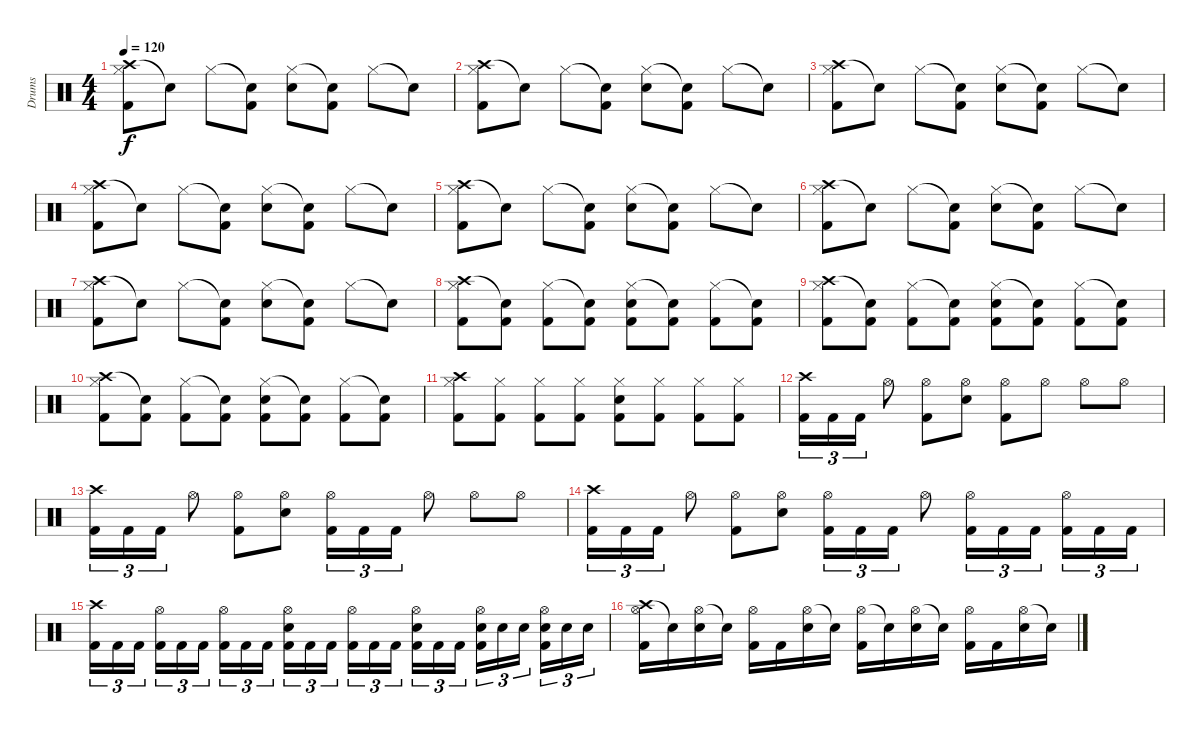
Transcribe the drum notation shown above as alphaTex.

\track ("Drums" "Drums") {instrument percussion}
\staff {score}
\articulation defaults
\ts (4 4)
\tempo 120
\clef neutral
\ks c
("Crash high (hit)" "Hi-Hat (closed)" "Kick (hit) 2").8{dy f} "Snare (hit)"{t}.8 "Hi-Hat (closed)".8 ("Snare (hit)"{t} "Kick (hit) 2").8 ("Hi-Hat (closed)" "Electric Snare (hit)").8 ("Snare (hit)"{t} "Kick (hit) 2").8 "Hi-Hat (closed)".8 "Snare (hit)"{t}.8 |
("Crash high (hit)" "Hi-Hat (closed)" "Kick (hit) 2").8 "Snare (hit)"{t}.8 "Hi-Hat (closed)".8 ("Snare (hit)"{t} "Kick (hit) 2").8 ("Hi-Hat (closed)" "Electric Snare (hit)").8 ("Snare (hit)"{t} "Kick (hit) 2").8 "Hi-Hat (closed)".8 "Snare (hit)"{t}.8 |
("Crash high (hit)" "Hi-Hat (closed)" "Kick (hit) 2").8 "Snare (hit)"{t}.8 "Hi-Hat (closed)".8 ("Snare (hit)"{t} "Kick (hit) 2").8 ("Hi-Hat (closed)" "Electric Snare (hit)").8 ("Snare (hit)"{t} "Kick (hit) 2").8 "Hi-Hat (closed)".8 "Snare (hit)"{t}.8 |
("Crash high (hit)" "Hi-Hat (closed)" "Kick (hit) 2").8 "Snare (hit)"{t}.8 "Hi-Hat (closed)".8 ("Snare (hit)"{t} "Kick (hit) 2").8 ("Hi-Hat (closed)" "Electric Snare (hit)").8 ("Snare (hit)"{t} "Kick (hit) 2").8 "Hi-Hat (closed)".8 "Snare (hit)"{t}.8 |
("Crash high (hit)" "Hi-Hat (closed)" "Kick (hit) 2").8 "Snare (hit)"{t}.8 "Hi-Hat (closed)".8 ("Snare (hit)"{t} "Kick (hit) 2").8 ("Hi-Hat (closed)" "Electric Snare (hit)").8 ("Snare (hit)"{t} "Kick (hit) 2").8 "Hi-Hat (closed)".8 "Snare (hit)"{t}.8 |
("Crash high (hit)" "Hi-Hat (closed)" "Kick (hit) 2").8 "Snare (hit)"{t}.8 "Hi-Hat (closed)".8 ("Snare (hit)"{t} "Kick (hit) 2").8 ("Hi-Hat (closed)" "Electric Snare (hit)").8 ("Snare (hit)"{t} "Kick (hit) 2").8 "Hi-Hat (closed)".8 "Snare (hit)"{t}.8 |
("Crash high (hit)" "Hi-Hat (closed)" "Kick (hit) 2").8 "Snare (hit)"{t}.8 "Hi-Hat (closed)".8 ("Snare (hit)"{t} "Kick (hit) 2").8 ("Hi-Hat (closed)" "Electric Snare (hit)").8 ("Snare (hit)"{t} "Kick (hit) 2").8 "Hi-Hat (closed)".8 "Snare (hit)"{t}.8 |
("Crash high (hit)" "Hi-Hat (closed)" "Kick (hit) 2").8 ("Snare (hit)"{t} "Kick (hit) 2").8 ("Hi-Hat (closed)" "Kick (hit) 2").8 ("Snare (hit)"{t} "Kick (hit) 2").8 ("Hi-Hat (closed)" "Electric Snare (hit)" "Kick (hit) 2").8 ("Snare (hit)"{t} "Kick (hit) 2").8 ("Hi-Hat (closed)" "Kick (hit) 2").8 ("Snare (hit)"{t} "Kick (hit) 2").8 |
("Crash high (hit)" "Hi-Hat (closed)" "Kick (hit) 2").8 ("Snare (hit)"{t} "Kick (hit) 2").8 ("Hi-Hat (closed)" "Kick (hit) 2").8 ("Snare (hit)"{t} "Kick (hit) 2").8 ("Hi-Hat (closed)" "Electric Snare (hit)" "Kick (hit) 2").8 ("Snare (hit)"{t} "Kick (hit) 2").8 ("Hi-Hat (closed)" "Kick (hit) 2").8 ("Snare (hit)"{t} "Kick (hit) 2").8 |
("Crash high (hit)" "Hi-Hat (closed)" "Kick (hit) 2").8 ("Snare (hit)"{t} "Kick (hit) 2").8 ("Hi-Hat (closed)" "Kick (hit) 2").8 ("Snare (hit)"{t} "Kick (hit) 2").8 ("Hi-Hat (closed)" "Electric Snare (hit)" "Kick (hit) 2").8 ("Snare (hit)"{t} "Kick (hit) 2").8 ("Hi-Hat (closed)" "Kick (hit) 2").8 ("Snare (hit)"{t} "Kick (hit) 2").8 |
("Crash high (hit)" "Hi-Hat (closed)" "Kick (hit) 2").8 ("Hi-Hat (closed)" "Kick (hit) 2").8 ("Hi-Hat (closed)" "Kick (hit) 2").8 ("Hi-Hat (closed)" "Kick (hit) 2").8 ("Hi-Hat (closed)" "Electric Snare (hit)" "Kick (hit) 2").8 ("Hi-Hat (closed)" "Kick (hit) 2").8 ("Hi-Hat (closed)" "Kick (hit) 2").8 ("Hi-Hat (closed)" "Kick (hit) 2").8 |
("Crash high (hit)" "Kick (hit) 2").16{tu (3 2)} "Kick (hit) 2".16{tu (3 2)} "Kick (hit) 2".16{tu (3 2)} "Hi-Hat (open)".8 ("Hi-Hat (open)" "Kick (hit) 2").8 ("Hi-Hat (open)" "Electric Snare (hit)").8 ("Hi-Hat (open)" "Kick (hit) 2").8 "Hi-Hat (open)".8 "Hi-Hat (open)".8 "Hi-Hat (open)".8 |
("Crash high (hit)" "Kick (hit) 2").16{tu (3 2)} "Kick (hit) 2".16{tu (3 2)} "Kick (hit) 2".16{tu (3 2)} "Hi-Hat (open)".8 ("Hi-Hat (open)" "Kick (hit) 2").8 ("Hi-Hat (open)" "Electric Snare (hit)").8 ("Hi-Hat (open)" "Kick (hit) 2").16{tu (3 2)} "Kick (hit) 2".16{tu (3 2)} "Kick (hit) 2".16{tu (3 2)} "Hi-Hat (open)".8 "Hi-Hat (open)".8 "Hi-Hat (open)".8 |
("Crash high (hit)" "Kick (hit) 2").16{tu (3 2)} "Kick (hit) 2".16{tu (3 2)} "Kick (hit) 2".16{tu (3 2)} "Hi-Hat (open)".8 ("Hi-Hat (open)" "Kick (hit) 2").8 ("Hi-Hat (open)" "Electric Snare (hit)").8 ("Hi-Hat (open)" "Kick (hit) 2").16{tu (3 2)} "Kick (hit) 2".16{tu (3 2)} "Kick (hit) 2".16{tu (3 2)} "Hi-Hat (open)".8 ("Hi-Hat (open)" "Kick (hit) 2").16{tu (3 2)} "Kick (hit) 2".16{tu (3 2)} "Kick (hit) 2".16{tu (3 2)} ("Hi-Hat (open)" "Kick (hit) 2").16{tu (3 2)} "Kick (hit) 2".16{tu (3 2)} "Kick (hit) 2".16{tu (3 2)} |
("Crash high (hit)" "Kick (hit) 2").16{tu (3 2)} "Kick (hit) 2".16{tu (3 2)} "Kick (hit) 2".16{tu (3 2)} ("Hi-Hat (open)" "Kick (hit) 2").16{tu (3 2)} "Kick (hit) 2".16{tu (3 2)} "Kick (hit) 2".16{tu (3 2)} ("Hi-Hat (open)" "Kick (hit) 2").16{tu (3 2)} "Kick (hit) 2".16{tu (3 2)} "Kick (hit) 2".16{tu (3 2)} ("Hi-Hat (open)" "Electric Snare (hit)" "Kick (hit) 2").16{tu (3 2)} "Kick (hit) 2".16{tu (3 2)} "Kick (hit) 2".16{tu (3 2)} ("Hi-Hat (open)" "Kick (hit) 2").16{tu (3 2)} "Kick (hit) 2".16{tu (3 2)} "Kick (hit) 2".16{tu (3 2)} ("Hi-Hat (open)" "Electric Snare (hit)" "Kick (hit) 2").16{tu (3 2)} "Kick (hit) 2".16{tu (3 2)} "Kick (hit) 2".16{tu (3 2)} ("Hi-Hat (open)" "Electric Snare (hit)" "Kick (hit) 2").16{tu (3 2)} "Electric Snare (hit)".16{tu (3 2)} "Electric Snare (hit)".16{tu (3 2)} ("Hi-Hat (open)" "Electric Snare (hit)" "Kick (hit) 2").16{tu (3 2)} "Electric Snare (hit)".16{tu (3 2)} "Electric Snare (hit)".16{tu (3 2)} |
("Crash high (hit)" "Hi-Hat (open)" "Kick (hit) 2").16 "Snare (hit)"{t}.16 ("Hi-Hat (open)" "Electric Snare (hit)").16 "Snare (hit)"{t}.16 ("Hi-Hat (open)" "Kick (hit) 2").16 "Kick (hit) 2".16 ("Hi-Hat (open)" "Electric Snare (hit)").16 "Snare (hit)"{t}.16 ("Hi-Hat (open)" "Kick (hit) 2").16 "Snare (hit)"{t}.16 ("Hi-Hat (open)" "Electric Snare (hit)").16 "Snare (hit)"{t}.16 ("Hi-Hat (open)" "Kick (hit) 2").16 "Kick (hit) 2".16 ("Hi-Hat (open)" "Electric Snare (hit)").16 "Snare (hit)"{t}.16
